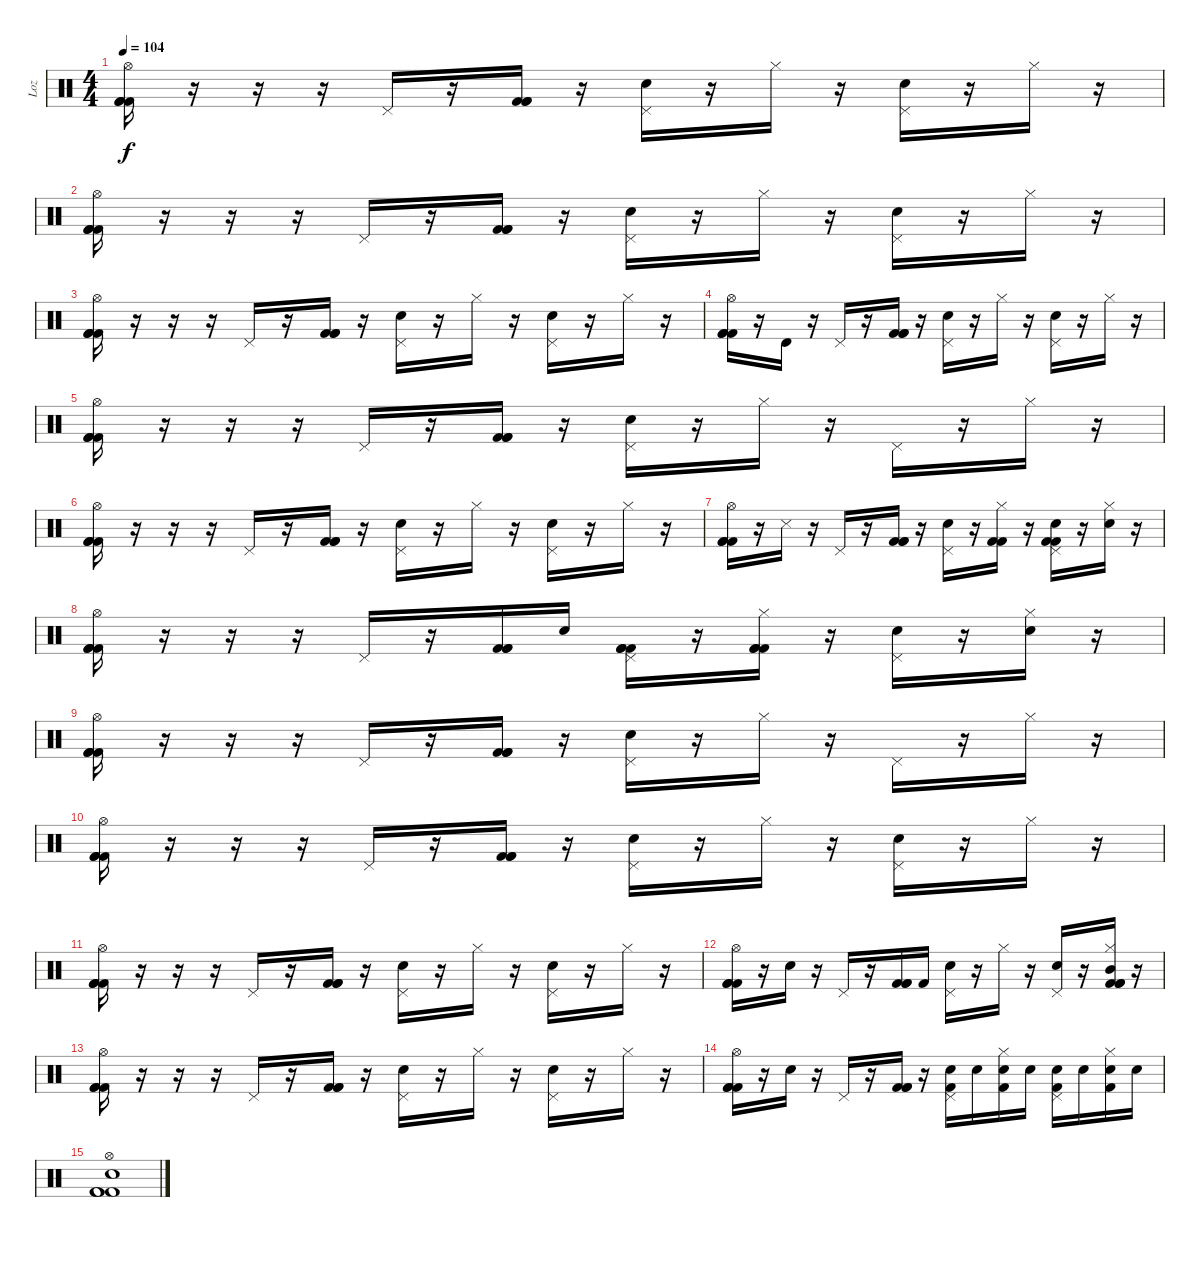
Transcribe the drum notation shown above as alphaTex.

\track ("Loz" "Loz") {instrument percussion}
\staff {score}
\articulation defaults
\ts (4 4)
\tempo 104
\clef neutral
\ks c
("Hi-Hat (open)" "Kick (hit) 2" "Kick (hit) 2" "Kick (hit) 2").16{dy f} r.16 r.16 r.16 "Pedal Hi-Hat (hit)".16 r.16 ("Kick (hit) 2" "Kick (hit) 2" "Kick (hit) 2").16 r.16 ("Pedal Hi-Hat (hit)" "Electric Snare (hit)").16 r.16 "Hi-Hat (closed)".16 r.16 ("Pedal Hi-Hat (hit)" "Electric Snare (hit)").16 r.16 "Hi-Hat (closed)".16 r.16 |
("Hi-Hat (open)" "Kick (hit) 2" "Kick (hit) 2" "Kick (hit) 2").16 r.16 r.16 r.16 "Pedal Hi-Hat (hit)".16 r.16 ("Kick (hit) 2" "Kick (hit) 2" "Kick (hit) 2").16 r.16 ("Pedal Hi-Hat (hit)" "Electric Snare (hit)").16 r.16 "Hi-Hat (closed)".16 r.16 ("Pedal Hi-Hat (hit)" "Electric Snare (hit)").16 r.16 "Hi-Hat (closed)".16 r.16 |
("Hi-Hat (open)" "Kick (hit) 2" "Kick (hit) 2" "Kick (hit) 2").16 r.16 r.16 r.16 "Pedal Hi-Hat (hit)".16 r.16 ("Kick (hit) 2" "Kick (hit) 2" "Kick (hit) 2").16 r.16 ("Pedal Hi-Hat (hit)" "Electric Snare (hit)").16 r.16 "Hi-Hat (closed)".16 r.16 ("Pedal Hi-Hat (hit)" "Electric Snare (hit)").16 r.16 "Hi-Hat (closed)".16 r.16 |
("Hi-Hat (open)" "Kick (hit) 2" "Kick (hit) 2" "Kick (hit) 2").16 r.16 "Timbale high (hit)".16 r.16 "Pedal Hi-Hat (hit)".16 r.16 ("Kick (hit) 2" "Kick (hit) 2" "Kick (hit) 2").16 r.16 ("Pedal Hi-Hat (hit)" "Electric Snare (hit)").16 r.16 "Hi-Hat (closed)".16 r.16 ("Pedal Hi-Hat (hit)" "Electric Snare (hit)").16 r.16 "Hi-Hat (closed)".16 r.16 |
("Hi-Hat (open)" "Kick (hit) 2" "Kick (hit) 2" "Kick (hit) 2").16 r.16 r.16 r.16 "Pedal Hi-Hat (hit)".16 r.16 ("Kick (hit) 2" "Kick (hit) 2" "Kick (hit) 2").16 r.16 ("Pedal Hi-Hat (hit)" "Electric Snare (hit)").16 r.16 "Hi-Hat (closed)".16 r.16 "Pedal Hi-Hat (hit)".16 r.16 "Hi-Hat (closed)".16 r.16 |
("Hi-Hat (open)" "Kick (hit) 2" "Kick (hit) 2" "Kick (hit) 2").16 r.16 r.16 r.16 "Pedal Hi-Hat (hit)".16 r.16 ("Kick (hit) 2" "Kick (hit) 2" "Kick (hit) 2").16 r.16 ("Pedal Hi-Hat (hit)" "Electric Snare (hit)").16 r.16 "Hi-Hat (closed)".16 r.16 ("Pedal Hi-Hat (hit)" "Electric Snare (hit)").16 r.16 "Hi-Hat (closed)".16 r.16 |
("Hi-Hat (open)" "Kick (hit) 2" "Kick (hit) 2" "Kick (hit) 2").16 r.16 "Snare (side stick) 3".16 r.16 "Pedal Hi-Hat (hit)".16 r.16 ("Kick (hit) 2" "Kick (hit) 2" "Kick (hit) 2").16 r.16 ("Pedal Hi-Hat (hit)" "Electric Snare (hit)").16 r.16 ("Hi-Hat (closed)" "Kick (hit) 2" "Kick (hit) 2").16 r.16 ("Pedal Hi-Hat (hit)" "Electric Snare (hit)" "Kick (hit) 2" "Kick (hit) 2").16 r.16 ("Hi-Hat (closed)" "Electric Snare (hit)").16 r.16 |
("Hi-Hat (open)" "Kick (hit) 2" "Kick (hit) 2" "Kick (hit) 2").16 r.16 r.16 r.16 "Pedal Hi-Hat (hit)".16 r.16 ("Kick (hit) 2" "Kick (hit) 2" "Kick (hit) 2").16 "Electric Snare (hit)".16 ("Pedal Hi-Hat (hit)" "Kick (hit) 2" "Kick (hit) 2" "Kick (hit) 2").16 r.16 ("Hi-Hat (closed)" "Kick (hit) 2" "Kick (hit) 2" "Kick (hit) 2").16 r.16 ("Pedal Hi-Hat (hit)" "Electric Snare (hit)").16 r.16 ("Hi-Hat (closed)" "Electric Snare (hit)").16 r.16 |
("Hi-Hat (open)" "Kick (hit) 2" "Kick (hit) 2" "Kick (hit) 2").16 r.16 r.16 r.16 "Pedal Hi-Hat (hit)".16 r.16 ("Kick (hit) 2" "Kick (hit) 2" "Kick (hit) 2").16 r.16 ("Pedal Hi-Hat (hit)" "Electric Snare (hit)").16 r.16 "Hi-Hat (closed)".16 r.16 "Pedal Hi-Hat (hit)".16 r.16 "Hi-Hat (closed)".16 r.16 |
("Hi-Hat (open)" "Kick (hit) 2" "Kick (hit) 2" "Kick (hit) 2").16 r.16 r.16 r.16 "Pedal Hi-Hat (hit)".16 r.16 ("Kick (hit) 2" "Kick (hit) 2" "Kick (hit) 2").16 r.16 ("Pedal Hi-Hat (hit)" "Electric Snare (hit)").16 r.16 "Hi-Hat (closed)".16 r.16 ("Pedal Hi-Hat (hit)" "Electric Snare (hit)").16 r.16 "Hi-Hat (closed)".16 r.16 |
("Hi-Hat (open)" "Kick (hit) 2" "Kick (hit) 2" "Kick (hit) 2").16 r.16 r.16 r.16 "Pedal Hi-Hat (hit)".16 r.16 ("Kick (hit) 2" "Kick (hit) 2" "Kick (hit) 2").16 r.16 ("Pedal Hi-Hat (hit)" "Electric Snare (hit)").16 r.16 "Hi-Hat (closed)".16 r.16 ("Pedal Hi-Hat (hit)" "Electric Snare (hit)").16 r.16 "Hi-Hat (closed)".16 r.16 |
("Hi-Hat (open)" "Kick (hit) 2" "Kick (hit) 2" "Kick (hit) 2").16 r.16 "Electric Snare (hit)".16 r.16 "Pedal Hi-Hat (hit)".16 r.16 ("Kick (hit) 2" "Kick (hit) 2" "Kick (hit) 2").16 "Kick (hit) 2".16 ("Pedal Hi-Hat (hit)" "Electric Snare (hit)").16 r.16 "Hi-Hat (closed)".16 r.16 ("Pedal Hi-Hat (hit)" "Electric Snare (hit)").16 r.16 ("Hi-Hat (closed)" "Mid Tom (hit)" "Kick (hit) 2" "Kick (hit) 2" "Kick (hit) 2").16 r.16 |
("Hi-Hat (open)" "Kick (hit) 2" "Kick (hit) 2" "Kick (hit) 2").16 r.16 r.16 r.16 "Pedal Hi-Hat (hit)".16 r.16 ("Kick (hit) 2" "Kick (hit) 2" "Kick (hit) 2").16 r.16 ("Pedal Hi-Hat (hit)" "Electric Snare (hit)").16 r.16 "Hi-Hat (closed)".16 r.16 ("Pedal Hi-Hat (hit)" "Electric Snare (hit)").16 r.16 "Hi-Hat (closed)".16 r.16 |
("Hi-Hat (open)" "Kick (hit) 2" "Kick (hit) 2" "Kick (hit) 2").16 r.16 "Electric Snare (hit)".16 r.16 "Pedal Hi-Hat (hit)".16 r.16 ("Kick (hit) 2" "Kick (hit) 2" "Kick (hit) 2").16 r.16 ("Pedal Hi-Hat (hit)" "Electric Snare (hit)" "Kick (hit) 2").16 "Electric Snare (hit)".16 ("Hi-Hat (closed)" "Electric Snare (hit)" "Kick (hit) 2").16 "Electric Snare (hit)".16 ("Pedal Hi-Hat (hit)" "Electric Snare (hit)" "Kick (hit) 2").16 "Electric Snare (hit)".16 ("Hi-Hat (closed)" "Electric Snare (hit)" "Kick (hit) 2").16 "Electric Snare (hit)".16 |
("Hi-Hat (open)" "Electric Snare (hit)" "Kick (hit) 2" "Kick (hit) 2" "Kick (hit) 2").1
